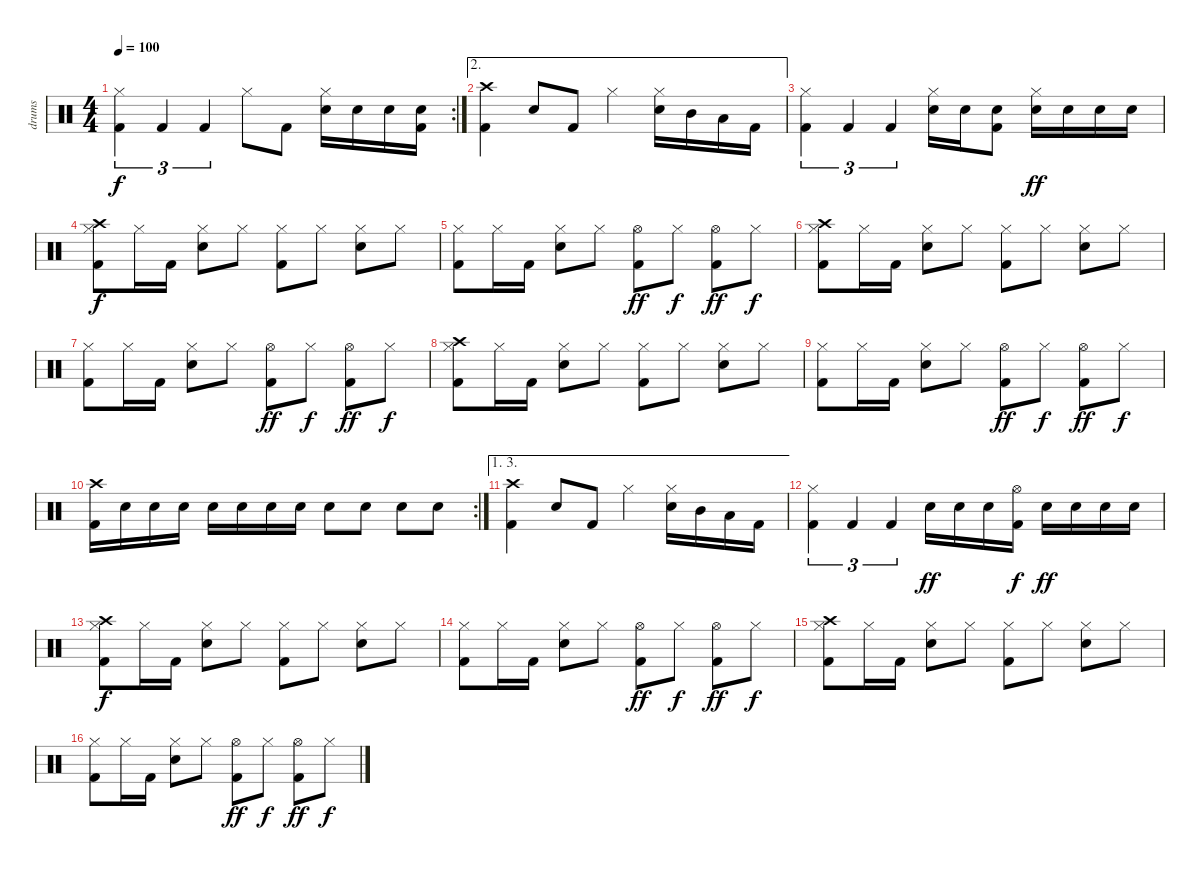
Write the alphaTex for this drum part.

\track ("drums" "drums") {instrument percussion}
\staff {score}
\articulation defaults
\rc 2
\ts (4 4)
\tempo 100
\clef neutral
\ks c
("Hi-Hat (closed)" "Kick (hit) 2").4{tu (3 2) dy f} "Kick (hit) 2".4{tu (3 2)} "Kick (hit) 2".4{tu (3 2)} "Hi-Hat (closed)".8 "Kick (hit) 2".8 ("Hi-Hat (closed)" "Snare (hit) 2").16 "Snare (hit) 2".16 "Snare (hit) 2".16 ("Snare (hit) 2" "Kick (hit) 2").16 |
\ae 2
("Crash high (hit)" "Kick (hit) 2").4 "Snare (hit) 2".8 "Kick (hit) 2".8 "Hi-Hat (closed)".4 ("Hi-Hat (closed)" "Snare (hit) 2").16 "Mid Tom (hit)".16 "Low Tom (hit)".16 "Kick (hit) 2".16 |
("Hi-Hat (closed)" "Kick (hit) 2").4{tu (3 2)} "Kick (hit) 2".4{tu (3 2)} "Kick (hit) 2".4{tu (3 2)} ("Hi-Hat (closed)" "Snare (hit) 2").16 "Snare (hit) 2".16 ("Snare (hit) 2" "Kick (hit) 2").8 ("Hi-Hat (closed)" "Snare (hit) 2").16{dy ff} "Snare (hit) 2".16 "Snare (hit) 2".16 "Snare (hit) 2".16 |
("Crash high (hit)" "Hi-Hat (closed)" "Kick (hit) 2").8{dy f} "Hi-Hat (closed)".16 "Kick (hit) 2".16 ("Hi-Hat (closed)" "Snare (hit) 2").8 "Hi-Hat (closed)".8 ("Hi-Hat (closed)" "Kick (hit) 2").8 "Hi-Hat (closed)".8 ("Hi-Hat (closed)" "Snare (hit) 2").8 "Hi-Hat (closed)".8 |
("Hi-Hat (closed)" "Kick (hit) 2").8 "Hi-Hat (closed)".16 "Kick (hit) 2".16 ("Hi-Hat (closed)" "Snare (hit) 2").8 "Hi-Hat (closed)".8 ("Hi-Hat (open)" "Kick (hit) 2").8{dy ff} "Hi-Hat (closed)".8{dy f} ("Hi-Hat (open)" "Kick (hit) 2").8{dy ff} "Hi-Hat (closed)".8{dy f} |
("Crash high (hit)" "Hi-Hat (closed)" "Kick (hit) 2").8 "Hi-Hat (closed)".16 "Kick (hit) 2".16 ("Hi-Hat (closed)" "Snare (hit) 2").8 "Hi-Hat (closed)".8 ("Hi-Hat (closed)" "Kick (hit) 2").8 "Hi-Hat (closed)".8 ("Hi-Hat (closed)" "Snare (hit) 2").8 "Hi-Hat (closed)".8 |
("Hi-Hat (closed)" "Kick (hit) 2").8 "Hi-Hat (closed)".16 "Kick (hit) 2".16 ("Hi-Hat (closed)" "Snare (hit) 2").8 "Hi-Hat (closed)".8 ("Hi-Hat (open)" "Kick (hit) 2").8{dy ff} "Hi-Hat (closed)".8{dy f} ("Hi-Hat (open)" "Kick (hit) 2").8{dy ff} "Hi-Hat (closed)".8{dy f} |
("Crash high (hit)" "Hi-Hat (closed)" "Kick (hit) 2").8 "Hi-Hat (closed)".16 "Kick (hit) 2".16 ("Hi-Hat (closed)" "Snare (hit) 2").8 "Hi-Hat (closed)".8 ("Hi-Hat (closed)" "Kick (hit) 2").8 "Hi-Hat (closed)".8 ("Hi-Hat (closed)" "Snare (hit) 2").8 "Hi-Hat (closed)".8 |
("Hi-Hat (closed)" "Kick (hit) 2").8 "Hi-Hat (closed)".16 "Kick (hit) 2".16 ("Hi-Hat (closed)" "Snare (hit) 2").8 "Hi-Hat (closed)".8 ("Hi-Hat (open)" "Kick (hit) 2").8{dy ff} "Hi-Hat (closed)".8{dy f} ("Hi-Hat (open)" "Kick (hit) 2").8{dy ff} "Hi-Hat (closed)".8{dy f} |
\rc 2
("Crash high (hit)" "Kick (hit) 2").16 "Electric Snare (hit)".16 "Electric Snare (hit)".16 "Electric Snare (hit)".16 "Electric Snare (hit)".16 "Electric Snare (hit)".16 "Electric Snare (hit)".16 "Electric Snare (hit)".16 "Electric Snare (hit)".8 "Electric Snare (hit)".8 "Electric Snare (hit)".8 "Electric Snare (hit)".8 |
\ae (1 3)
("Crash high (hit)" "Kick (hit) 2").4 "Snare (hit) 2".8 "Kick (hit) 2".8 "Hi-Hat (closed)".4 ("Hi-Hat (closed)" "Snare (hit) 2").16 "Mid Tom (hit)".16 "Low Tom (hit)".16 "Kick (hit) 2".16 |
("Hi-Hat (closed)" "Kick (hit) 2").4{tu (3 2)} "Kick (hit) 2".4{tu (3 2)} "Kick (hit) 2".4{tu (3 2)} "Snare (hit) 2".16{dy ff} "Snare (hit) 2".16 "Snare (hit) 2".16 ("Hi-Hat (open)" "Kick (hit) 2").16{dy f} "Snare (hit) 2".16{dy ff} "Snare (hit) 2".16 "Snare (hit) 2".16 "Snare (hit) 2".16 |
("Crash high (hit)" "Hi-Hat (closed)" "Kick (hit) 2").8{dy f} "Hi-Hat (closed)".16 "Kick (hit) 2".16 ("Hi-Hat (closed)" "Snare (hit) 2").8 "Hi-Hat (closed)".8 ("Hi-Hat (closed)" "Kick (hit) 2").8 "Hi-Hat (closed)".8 ("Hi-Hat (closed)" "Snare (hit) 2").8 "Hi-Hat (closed)".8 |
("Hi-Hat (closed)" "Kick (hit) 2").8 "Hi-Hat (closed)".16 "Kick (hit) 2".16 ("Hi-Hat (closed)" "Snare (hit) 2").8 "Hi-Hat (closed)".8 ("Hi-Hat (open)" "Kick (hit) 2").8{dy ff} "Hi-Hat (closed)".8{dy f} ("Hi-Hat (open)" "Kick (hit) 2").8{dy ff} "Hi-Hat (closed)".8{dy f} |
("Crash high (hit)" "Hi-Hat (closed)" "Kick (hit) 2").8 "Hi-Hat (closed)".16 "Kick (hit) 2".16 ("Hi-Hat (closed)" "Snare (hit) 2").8 "Hi-Hat (closed)".8 ("Hi-Hat (closed)" "Kick (hit) 2").8 "Hi-Hat (closed)".8 ("Hi-Hat (closed)" "Snare (hit) 2").8 "Hi-Hat (closed)".8 |
("Hi-Hat (closed)" "Kick (hit) 2").8 "Hi-Hat (closed)".16 "Kick (hit) 2".16 ("Hi-Hat (closed)" "Snare (hit) 2").8 "Hi-Hat (closed)".8 ("Hi-Hat (open)" "Kick (hit) 2").8{dy ff} "Hi-Hat (closed)".8{dy f} ("Hi-Hat (open)" "Kick (hit) 2").8{dy ff} "Hi-Hat (closed)".8{dy f}
